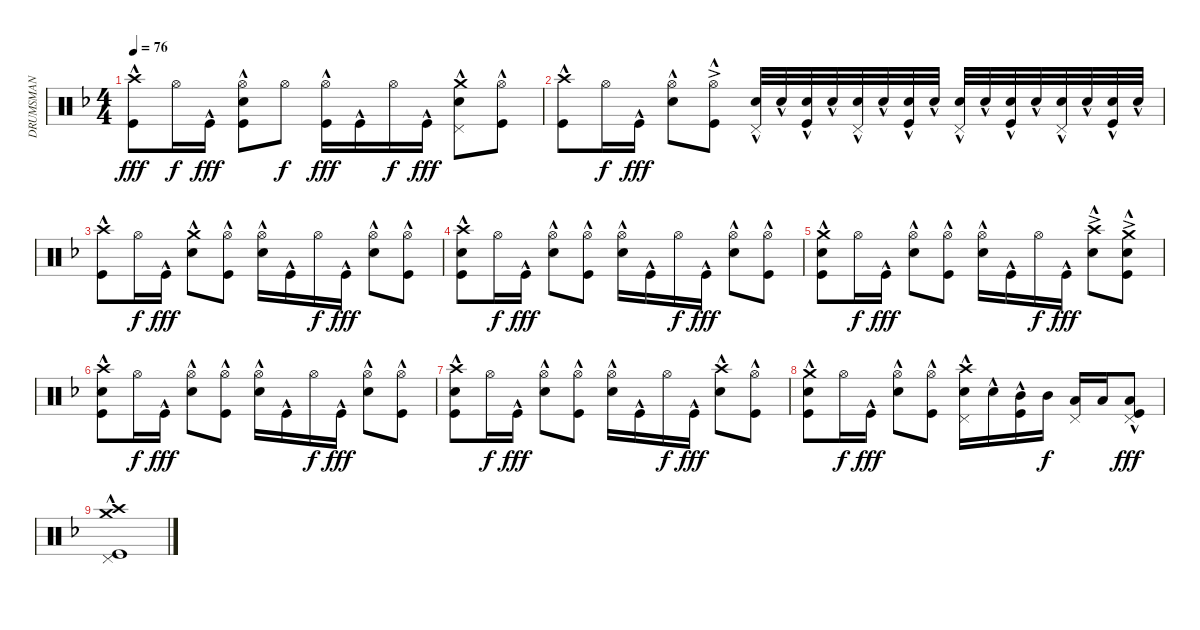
\track ("DRUMSMAN" "DRUMSMAN") {instrument percussion}
\staff {score}
\articulation defaults
\ts (4 4)
\tempo 76
\clef neutral
\ks f
("Crash high (hit)"{hac} "Kick (hit)"{hac}).8{dy fff} "Hi-Hat (open)".16{dy f} "Kick (hit)"{hac}.16{dy fff} ("Hi-Hat (open)" "Snare (hit) 2"{hac} "Kick (hit)"{hac}).8 "Hi-Hat (open)".8{dy f} ("Hi-Hat (open)" "Kick (hit)"{hac}).16{dy fff} "Kick (hit)"{hac}.16 "Hi-Hat (open)".16{dy f} "Kick (hit)"{hac}.16{dy fff} ("Crash medium (hit)" "Snare (hit) 2"{hac} "Pedal Hi-Hat (hit)").8 ("Hi-Hat (open)" "Kick (hit)"{hac}).8 |
("Crash high (hit)"{hac} "Kick (hit)"{hac}).8 "Hi-Hat (open)".16{dy f} "Kick (hit)"{hac}.16{dy fff} ("Hi-Hat (open)" "Snare (hit) 2"{hac}).8 ("Hi-Hat (open)"{ac} "Kick (hit)"{hac}).8 ("Snare (hit) 2"{hac} "Pedal Hi-Hat (hit)").32 "Snare (hit) 2"{hac}.32 ("Snare (hit) 2"{hac} "Kick (hit)"{hac}).32 "Snare (hit) 2"{hac}.32 ("Snare (hit) 2"{hac} "Pedal Hi-Hat (hit)").32 "Snare (hit) 2"{hac}.32 ("Snare (hit) 2"{hac} "Kick (hit)"{hac}).32 "Snare (hit) 2"{hac}.32 ("Snare (hit) 2"{hac} "Pedal Hi-Hat (hit)").32 "Snare (hit) 2"{hac}.32 ("Snare (hit) 2"{hac} "Kick (hit)"{hac}).32 "Snare (hit) 2"{hac}.32 ("Snare (hit) 2"{hac} "Pedal Hi-Hat (hit)").32 "Snare (hit) 2"{hac}.32 ("Snare (hit) 2"{hac} "Kick (hit)"{hac}).32 "Snare (hit) 2"{hac}.32 |
("Crash high (hit)"{hac} "Kick (hit)"{hac}).8 "Hi-Hat (open)".16{dy f} "Kick (hit)"{hac}.16{dy fff} ("Crash medium (hit)"{hac} "Snare (hit) 2"{hac}).8 ("Hi-Hat (open)" "Kick (hit)"{hac}).8 ("Hi-Hat (open)" "Snare (hit) 2"{hac}).16 "Kick (hit)"{hac}.16 "Hi-Hat (open)".16{dy f} "Kick (hit)"{hac}.16{dy fff} ("Hi-Hat (open)" "Snare (hit) 2"{hac}).8 ("Hi-Hat (open)" "Kick (hit)"{hac}).8 |
("Crash high (hit)"{hac} "Snare (hit) 2"{hac} "Kick (hit)"{hac}).8 "Hi-Hat (open)".16{dy f} "Kick (hit)"{hac}.16{dy fff} ("Hi-Hat (open)" "Snare (hit) 2"{hac}).8 ("Hi-Hat (open)" "Kick (hit)"{hac}).8 ("Hi-Hat (open)" "Snare (hit) 2"{hac}).16 "Kick (hit)"{hac}.16 "Hi-Hat (open)".16{dy f} "Kick (hit)"{hac}.16{dy fff} ("Hi-Hat (open)" "Snare (hit) 2"{hac}).8 ("Hi-Hat (open)" "Kick (hit)"{hac}).8 |
("Crash medium (hit)"{hac} "Snare (hit) 2"{hac} "Kick (hit)"{hac}).8 "Hi-Hat (open)".16{dy f} "Kick (hit)"{hac}.16{dy fff} ("Hi-Hat (open)" "Snare (hit) 2"{hac}).8 ("Hi-Hat (open)" "Kick (hit)"{hac}).8 ("Hi-Hat (open)" "Snare (hit) 2"{hac}).16 "Kick (hit)"{hac}.16 "Hi-Hat (open)".16{dy f} "Kick (hit)"{hac}.16{dy fff} ("Crash high (hit)"{ac} "Snare (hit) 2"{hac}).8 ("Crash medium (hit)"{ac} "Snare (hit) 2"{hac} "Kick (hit)"{hac}).8 |
("Crash high (hit)"{hac} "Snare (hit) 2"{hac} "Kick (hit)"{hac}).8 "Hi-Hat (open)".16{dy f} "Kick (hit)"{hac}.16{dy fff} ("Hi-Hat (open)" "Snare (hit) 2"{hac}).8 ("Hi-Hat (open)" "Kick (hit)"{hac}).8 ("Hi-Hat (open)" "Snare (hit) 2"{hac}).16 "Kick (hit)"{hac}.16 "Hi-Hat (open)".16{dy f} "Kick (hit)"{hac}.16{dy fff} ("Hi-Hat (open)" "Snare (hit) 2"{hac}).8 ("Hi-Hat (open)" "Kick (hit)"{hac}).8 |
("Crash high (hit)"{hac} "Snare (hit) 2"{hac} "Kick (hit)"{hac}).8 "Hi-Hat (open)".16{dy f} "Kick (hit)"{hac}.16{dy fff} ("Hi-Hat (open)" "Snare (hit) 2"{hac}).8 ("Hi-Hat (open)" "Kick (hit)"{hac}).8 ("Hi-Hat (open)" "Snare (hit) 2"{hac}).16 "Kick (hit)"{hac}.16 "Hi-Hat (open)".16{dy f} "Kick (hit)"{hac}.16{dy fff} ("Crash high (hit)"{hac} "Snare (hit) 2"{hac}).8 ("Hi-Hat (open)" "Kick (hit)"{hac}).8 |
("Crash medium (hit)"{hac} "Snare (hit) 2"{hac} "Kick (hit)"{hac}).8 "Hi-Hat (open)".16{dy f} "Kick (hit)"{hac}.16{dy fff} ("Hi-Hat (open)" "Snare (hit) 2"{hac}).8 ("Hi-Hat (open)" "Kick (hit)"{hac}).8 ("Crash high (hit)"{hac} "Snare (hit) 2"{hac} "Pedal Hi-Hat (hit)").16 "Snare (hit) 2"{hac}.16 ("Mid Tom (hit)" "Kick (hit)"{hac}).16 "Mid Tom (hit)".16{dy f} ("Low Tom (hit)" "Pedal Hi-Hat (hit)").16 "Low Tom (hit)".16 ("Low Tom (hit)" "Pedal Hi-Hat (hit)" "Kick (hit)"{hac}).8{dy fff} |
("Crash medium (hit)"{hac} "Crash high (hit)"{hac} "Pedal Hi-Hat (hit)" "Kick (hit)"{hac}).1
